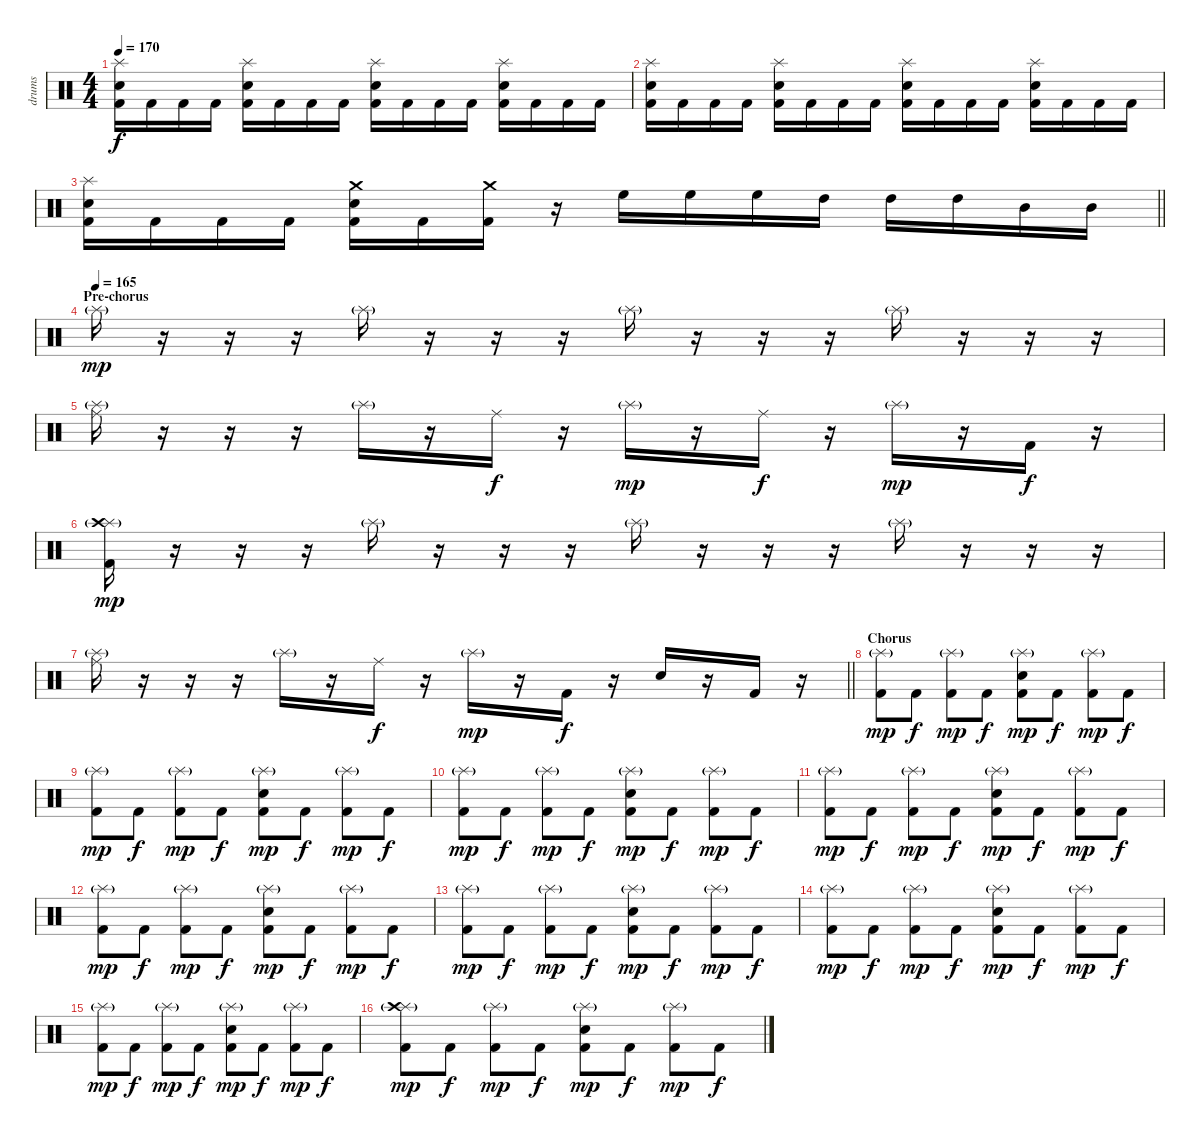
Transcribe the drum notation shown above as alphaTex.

\track ("drums" "drums") {instrument percussion}
\staff {score}
\articulation defaults
\ts (4 4)
\tempo 170
\clef neutral
\ks c
("Splash (hit)" "Snare (hit) 2" "Kick (hit) 2").16{dy f} "Kick (hit) 2".16 "Kick (hit) 2".16 "Kick (hit) 2".16 ("Splash (hit)" "Snare (hit) 2" "Kick (hit) 2").16 "Kick (hit) 2".16 "Kick (hit) 2".16 "Kick (hit) 2".16 ("Splash (hit)" "Snare (hit) 2" "Kick (hit) 2").16 "Kick (hit) 2".16 "Kick (hit) 2".16 "Kick (hit) 2".16 ("Splash (hit)" "Snare (hit) 2" "Kick (hit) 2").16 "Kick (hit) 2".16 "Kick (hit) 2".16 "Kick (hit) 2".16 |
("Splash (hit)" "Snare (hit) 2" "Kick (hit) 2").16 "Kick (hit) 2".16 "Kick (hit) 2".16 "Kick (hit) 2".16 ("Splash (hit)" "Snare (hit) 2" "Kick (hit) 2").16 "Kick (hit) 2".16 "Kick (hit) 2".16 "Kick (hit) 2".16 ("Splash (hit)" "Snare (hit) 2" "Kick (hit) 2").16 "Kick (hit) 2".16 "Kick (hit) 2".16 "Kick (hit) 2".16 ("Splash (hit)" "Snare (hit) 2" "Kick (hit) 2").16 "Kick (hit) 2".16 "Kick (hit) 2".16 "Kick (hit) 2".16 |
\barLineRight lightlight
("Splash (hit)" "Snare (hit) 2" "Kick (hit) 2").16 "Kick (hit) 2".16 "Kick (hit) 2".16 "Kick (hit) 2".16 ("Crash medium (hit)" "Snare (hit) 2" "Kick (hit) 2").16 "Kick (hit) 2".16 ("Crash medium (hit)" "Kick (hit) 2").16 r.16 "High Floor Tom (hit)".16 "High Floor Tom (hit)".16 "High Floor Tom (hit)".16 "High Tom (hit)".16 "High Tom (hit)".16 "High Tom (hit)".16 "Mid Tom (hit)".16 "Mid Tom (hit)".16 |
\section ("" "Pre-chorus")
\tempo (165)
"Splash (hit)"{g}.16{dy mp} r.16 r.16 r.16 "Splash (hit)"{g}.16 r.16 r.16 r.16 "Splash (hit)"{g}.16 r.16 r.16 r.16 "Splash (hit)"{g}.16 r.16 r.16 r.16 |
("Splash (hit)"{g} "Ride (middle)").16 r.16 r.16 r.16 "Splash (hit)"{g}.16 r.16 "Ride (middle)".16{dy f} r.16 "Splash (hit)"{g}.16{dy mp} r.16 "Ride (middle)".16{dy f} r.16 "Splash (hit)"{g}.16{dy mp} r.16 "Kick (hit) 2".16{dy f} r.16 |
("Splash (hit)"{g} "Crash high (hit)" "Kick (hit) 2").16{dy mp} r.16 r.16 r.16 "Splash (hit)"{g}.16 r.16 r.16 r.16 "Splash (hit)"{g}.16 r.16 r.16 r.16 "Splash (hit)"{g}.16 r.16 r.16 r.16 |
\barLineRight lightlight
("Splash (hit)"{g} "Ride (middle)").16 r.16 r.16 r.16 "Splash (hit)"{g}.16 r.16 "Ride (middle)".16{dy f} r.16 "Splash (hit)"{g}.16{dy mp} r.16 "Kick (hit) 2".16{dy f} r.16 "Snare (hit) 2".16 r.16 "Kick (hit) 2".16 r.16 |
\section ("" "Chorus")
("Splash (hit)"{g} "Kick (hit) 2").8{dy mp} "Kick (hit) 2".8{dy f} ("Splash (hit)"{g} "Kick (hit) 2").8{dy mp} "Kick (hit) 2".8{dy f} ("Splash (hit)"{g} "Snare (hit) 2" "Kick (hit) 2").8{dy mp} "Kick (hit) 2".8{dy f} ("Splash (hit)"{g} "Kick (hit) 2").8{dy mp} "Kick (hit) 2".8{dy f} |
("Splash (hit)"{g} "Kick (hit) 2").8{dy mp} "Kick (hit) 2".8{dy f} ("Splash (hit)"{g} "Kick (hit) 2").8{dy mp} "Kick (hit) 2".8{dy f} ("Splash (hit)"{g} "Snare (hit) 2" "Kick (hit) 2").8{dy mp} "Kick (hit) 2".8{dy f} ("Splash (hit)"{g} "Kick (hit) 2").8{dy mp} "Kick (hit) 2".8{dy f} |
("Splash (hit)"{g} "Kick (hit) 2").8{dy mp} "Kick (hit) 2".8{dy f} ("Splash (hit)"{g} "Kick (hit) 2").8{dy mp} "Kick (hit) 2".8{dy f} ("Splash (hit)"{g} "Snare (hit) 2" "Kick (hit) 2").8{dy mp} "Kick (hit) 2".8{dy f} ("Splash (hit)"{g} "Kick (hit) 2").8{dy mp} "Kick (hit) 2".8{dy f} |
("Splash (hit)"{g} "Kick (hit) 2").8{dy mp} "Kick (hit) 2".8{dy f} ("Splash (hit)"{g} "Kick (hit) 2").8{dy mp} "Kick (hit) 2".8{dy f} ("Splash (hit)"{g} "Snare (hit) 2" "Kick (hit) 2").8{dy mp} "Kick (hit) 2".8{dy f} ("Splash (hit)"{g} "Kick (hit) 2").8{dy mp} "Kick (hit) 2".8{dy f} |
("Splash (hit)"{g} "Kick (hit) 2").8{dy mp} "Kick (hit) 2".8{dy f} ("Splash (hit)"{g} "Kick (hit) 2").8{dy mp} "Kick (hit) 2".8{dy f} ("Splash (hit)"{g} "Snare (hit) 2" "Kick (hit) 2").8{dy mp} "Kick (hit) 2".8{dy f} ("Splash (hit)"{g} "Kick (hit) 2").8{dy mp} "Kick (hit) 2".8{dy f} |
("Splash (hit)"{g} "Kick (hit) 2").8{dy mp} "Kick (hit) 2".8{dy f} ("Splash (hit)"{g} "Kick (hit) 2").8{dy mp} "Kick (hit) 2".8{dy f} ("Splash (hit)"{g} "Snare (hit) 2" "Kick (hit) 2").8{dy mp} "Kick (hit) 2".8{dy f} ("Splash (hit)"{g} "Kick (hit) 2").8{dy mp} "Kick (hit) 2".8{dy f} |
("Splash (hit)"{g} "Kick (hit) 2").8{dy mp} "Kick (hit) 2".8{dy f} ("Splash (hit)"{g} "Kick (hit) 2").8{dy mp} "Kick (hit) 2".8{dy f} ("Splash (hit)"{g} "Snare (hit) 2" "Kick (hit) 2").8{dy mp} "Kick (hit) 2".8{dy f} ("Splash (hit)"{g} "Kick (hit) 2").8{dy mp} "Kick (hit) 2".8{dy f} |
("Splash (hit)"{g} "Kick (hit) 2").8{dy mp} "Kick (hit) 2".8{dy f} ("Splash (hit)"{g} "Kick (hit) 2").8{dy mp} "Kick (hit) 2".8{dy f} ("Splash (hit)"{g} "Snare (hit) 2" "Kick (hit) 2").8{dy mp} "Kick (hit) 2".8{dy f} ("Splash (hit)"{g} "Kick (hit) 2").8{dy mp} "Kick (hit) 2".8{dy f} |
("Splash (hit)"{g} "Crash high (hit)" "Kick (hit) 2").8{dy mp} "Kick (hit) 2".8{dy f} ("Splash (hit)"{g} "Kick (hit) 2").8{dy mp} "Kick (hit) 2".8{dy f} ("Splash (hit)"{g} "Snare (hit) 2" "Kick (hit) 2").8{dy mp} "Kick (hit) 2".8{dy f} ("Splash (hit)"{g} "Kick (hit) 2").8{dy mp} "Kick (hit) 2".8{dy f}
